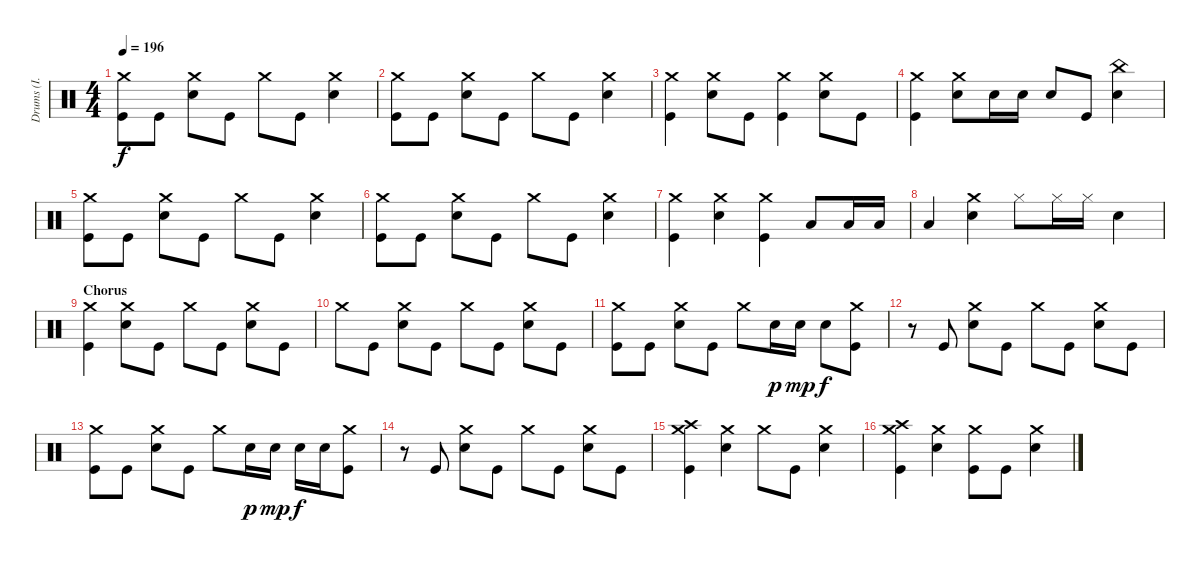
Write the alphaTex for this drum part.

\track ("Drums (I. Paice)" "Drums (I. ") {instrument percussion}
\staff {score}
\articulation defaults
\ts (4 4)
\tempo 196
\clef neutral
\ks c
("Crash medium (hit)" "Kick (hit)").8{dy f} "Kick (hit)".8 ("Crash medium (hit)" "Electric Snare (hit)").8 "Kick (hit)".8 "Crash medium (hit)".8 "Kick (hit)".8 ("Crash medium (hit)" "Electric Snare (hit)").4 |
("Crash medium (hit)" "Kick (hit)").8 "Kick (hit)".8 ("Crash medium (hit)" "Electric Snare (hit)").8 "Kick (hit)".8 "Crash medium (hit)".8 "Kick (hit)".8 ("Crash medium (hit)" "Electric Snare (hit)").4 |
("Crash medium (hit)" "Kick (hit)").4 ("Crash medium (hit)" "Electric Snare (hit)").8 "Kick (hit)".8 ("Crash medium (hit)" "Kick (hit)").4 ("Crash medium (hit)" "Electric Snare (hit)").8 "Kick (hit)".8 |
("Crash medium (hit)" "Kick (hit)").4 ("Crash medium (hit)" "Electric Snare (hit)").8 "Electric Snare (hit)".16 "Electric Snare (hit)".16 "Electric Snare (hit)".8 "Kick (hit)".8 ("China (hit)" "Electric Snare (hit)").4 |
("Crash medium (hit)" "Kick (hit)").8 "Kick (hit)".8 ("Crash medium (hit)" "Electric Snare (hit)").8 "Kick (hit)".8 "Crash medium (hit)".8 "Kick (hit)".8 ("Crash medium (hit)" "Electric Snare (hit)").4 |
("Crash medium (hit)" "Kick (hit)").8 "Kick (hit)".8 ("Crash medium (hit)" "Electric Snare (hit)").8 "Kick (hit)".8 "Crash medium (hit)".8 "Kick (hit)".8 ("Crash medium (hit)" "Electric Snare (hit)").4 |
("Crash medium (hit)" "Kick (hit)").4 ("Crash medium (hit)" "Electric Snare (hit)").4 ("Crash medium (hit)" "Kick (hit)").4 "Low Tom (hit)".8 "Low Tom (hit)".16 "Low Tom (hit)".16 |
"Low Tom (hit)".4 ("Crash medium (hit)" "Electric Snare (hit)").4 "Hi-Hat (closed)".8 "Hi-Hat (closed)".16 "Hi-Hat (closed)".16 "Electric Snare (hit)".4 |
\section ("" "Chorus")
("Crash medium (hit)" "Kick (hit)").4 ("Crash medium (hit)" "Electric Snare (hit)").8 "Kick (hit)".8 "Crash medium (hit)".8 "Kick (hit)".8 ("Crash medium (hit)" "Electric Snare (hit)").8 "Kick (hit)".8 |
"Crash medium (hit)".8 "Kick (hit)".8 ("Crash medium (hit)" "Electric Snare (hit)").8 "Kick (hit)".8 "Crash medium (hit)".8 "Kick (hit)".8 ("Crash medium (hit)" "Electric Snare (hit)").8 "Kick (hit)".8 |
("Crash medium (hit)" "Kick (hit)").8 "Kick (hit)".8 ("Crash medium (hit)" "Electric Snare (hit)").8 "Kick (hit)".8 "Crash medium (hit)".8 "Electric Snare (hit)".16{dy p} "Electric Snare (hit)".16{dy mp} "Electric Snare (hit)".8{dy f} ("Crash medium (hit)" "Kick (hit)").8 |
r.8 "Kick (hit)".8 ("Crash medium (hit)" "Electric Snare (hit)").8 "Kick (hit)".8 "Crash medium (hit)".8 "Kick (hit)".8 ("Crash medium (hit)" "Electric Snare (hit)").8 "Kick (hit)".8 |
("Crash medium (hit)" "Kick (hit)").8 "Kick (hit)".8 ("Crash medium (hit)" "Electric Snare (hit)").8 "Kick (hit)".8 "Crash medium (hit)".8 "Electric Snare (hit)".16{dy p} "Electric Snare (hit)".16{dy mp} "Electric Snare (hit)".16{dy f} "Electric Snare (hit)".16 ("Crash medium (hit)" "Kick (hit)").8 |
r.8 "Kick (hit)".8 ("Crash medium (hit)" "Electric Snare (hit)").8 "Kick (hit)".8 "Crash medium (hit)".8 "Kick (hit)".8 ("Crash medium (hit)" "Electric Snare (hit)").8 "Kick (hit)".8 |
("Crash medium (hit)" "Crash high (hit)" "Kick (hit)").4 ("Crash medium (hit)" "Electric Snare (hit)").4 "Crash medium (hit)".8 "Kick (hit)".8 ("Crash medium (hit)" "Electric Snare (hit)").4 |
("Crash medium (hit)" "Crash high (hit)" "Kick (hit)").4 ("Crash medium (hit)" "Electric Snare (hit)").4 ("Crash medium (hit)" "Kick (hit)").8 "Kick (hit)".8 ("Crash medium (hit)" "Electric Snare (hit)").4
